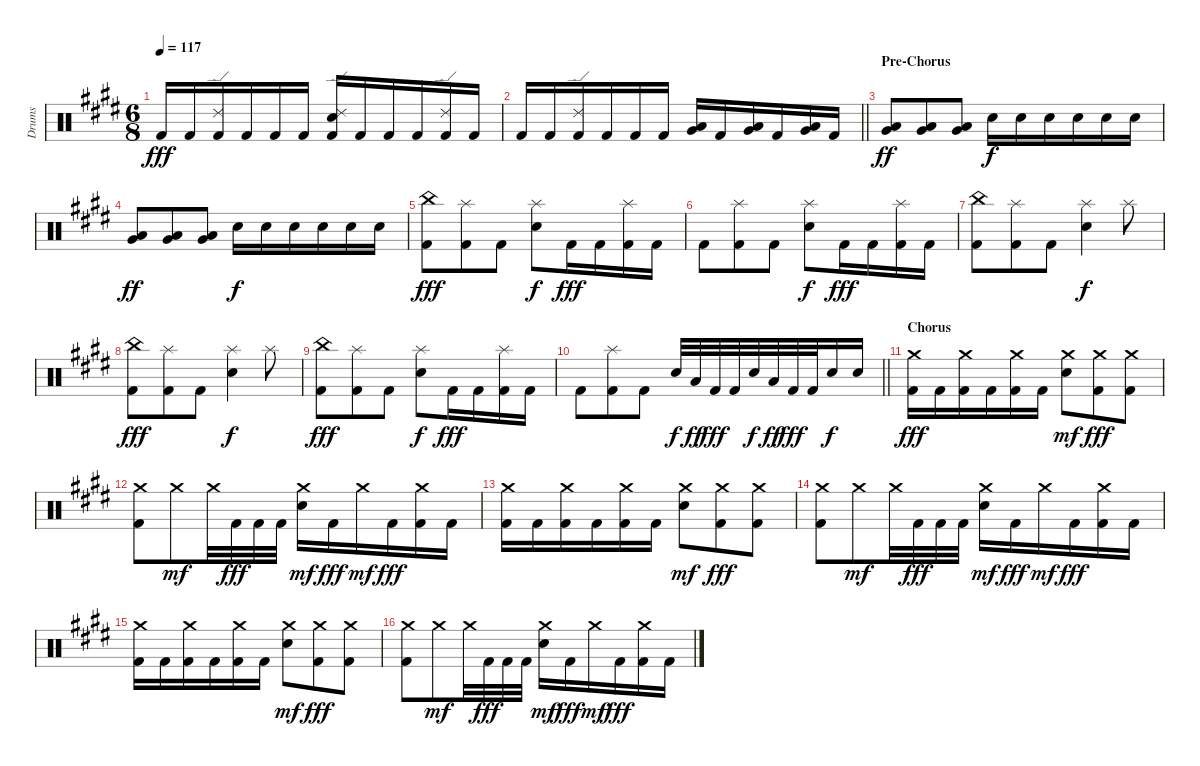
\track ("Drums" "Drums") {instrument percussion}
\staff {score}
\articulation defaults
\ts (6 8)
\tempo 117
\clef neutral
\ks c#minor "Kick (hit) 2".16{dy fff} "Kick (hit) 2".16
("Ride (edge) 2" "Kick (hit) 2").16 "Kick (hit) 2".16 "Kick (hit) 2".16 "Kick (hit) 2".16 ("Ride (edge) 2" "Electric Snare (hit)" "Kick (hit) 2").16 "Kick (hit) 2".16 "Kick (hit) 2".16 "Kick (hit) 2".16 ("Ride (edge) 2" "Kick (hit) 2").16 "Kick (hit) 2".16 |
\barLineRight lightlight "Kick (hit) 2".16 "Kick (hit) 2".16
("Ride (edge) 2" "Kick (hit) 2").16 "Kick (hit) 2".16 "Kick (hit) 2".16 "Kick (hit) 2".16 ("Very Low Tom (hit)" "Low Floor Tom (hit)").16 "Kick (hit) 2".16 ("Very Low Tom (hit)" "Low Floor Tom (hit)").16 "Kick (hit) 2".16 ("Very Low Tom (hit)" "Low Floor Tom (hit)").16 "Kick (hit) 2".16 |
\section ("" "Pre-Chorus")
("Very Low Tom (hit)" "Low Floor Tom (hit)").8{dy ff} ("Very Low Tom (hit)" "Low Floor Tom (hit)").8 ("Very Low Tom (hit)" "Low Floor Tom (hit)").8 "Electric Snare (hit)".16{dy f} "Electric Snare (hit)".16 "Electric Snare (hit)".16 "Electric Snare (hit)".16 "Electric Snare (hit)".16 "Electric Snare (hit)".16 |
("Very Low Tom (hit)" "Low Floor Tom (hit)").8{dy ff} ("Very Low Tom (hit)" "Low Floor Tom (hit)").8 ("Very Low Tom (hit)" "Low Floor Tom (hit)").8 "Electric Snare (hit)".16{dy f} "Electric Snare (hit)".16 "Electric Snare (hit)".16 "Electric Snare (hit)".16 "Electric Snare (hit)".16 "Electric Snare (hit)".16 |
("China (hit)" "Kick (hit) 2").8{dy fff} ("Splash (hit)" "Kick (hit) 2").8 "Kick (hit) 2".8 ("Splash (hit)" "Electric Snare (hit)").8{dy f} "Kick (hit) 2".16{dy fff} "Kick (hit) 2".16 ("Splash (hit)" "Kick (hit) 2").16 "Kick (hit) 2".16 |
"Kick (hit) 2".8 ("Splash (hit)" "Kick (hit) 2").8 "Kick (hit) 2".8 ("Splash (hit)" "Electric Snare (hit)").8{dy f} "Kick (hit) 2".16{dy fff} "Kick (hit) 2".16 ("Splash (hit)" "Kick (hit) 2").16 "Kick (hit) 2".16 |
("China (hit)" "Kick (hit) 2").8 ("Splash (hit)" "Kick (hit) 2").8 "Kick (hit) 2".8 ("Splash (hit)" "Electric Snare (hit)").4{dy f} "Splash (hit)".8 |
("China (hit)" "Kick (hit) 2").8{dy fff} ("Splash (hit)" "Kick (hit) 2").8 "Kick (hit) 2".8 ("Splash (hit)" "Electric Snare (hit)").4{dy f} "Splash (hit)".8 |
("China (hit)" "Kick (hit) 2").8{dy fff} ("Splash (hit)" "Kick (hit) 2").8 "Kick (hit) 2".8 ("Splash (hit)" "Electric Snare (hit)").8{dy f} "Kick (hit) 2".16{dy fff} "Kick (hit) 2".16 ("Splash (hit)" "Kick (hit) 2").16 "Kick (hit) 2".16 |
\barLineRight lightlight "Kick (hit) 2".8
("Splash (hit)" "Kick (hit) 2").8 "Kick (hit) 2".8 "Electric Snare (hit)".32{dy f} "Low Tom (hit)".32{dy ff} "Kick (hit) 2".32{dy fff} "Kick (hit) 2".32 "Electric Snare (hit)".32{dy f} "Low Tom (hit)".32{dy ff} "Kick (hit) 2".32{dy fff} "Kick (hit) 2".32 "Electric Snare (hit)".16{dy f} "Electric Snare (hit)".16 |
\section ("" "Chorus")
("Crash medium (hit)" "Kick (hit) 2").16{dy fff} "Kick (hit) 2".16 ("Crash medium (hit)" "Kick (hit) 2").16 "Kick (hit) 2".16 ("Crash medium (hit)" "Kick (hit) 2").16 "Kick (hit) 2".16 ("Crash medium (hit)" "Electric Snare (hit)").8{dy mf} ("Crash medium (hit)" "Kick (hit) 2").8{dy fff} ("Crash medium (hit)" "Kick (hit) 2").8 |
("Crash medium (hit)" "Kick (hit) 2").8 "Crash medium (hit)".8{dy mf} "Crash medium (hit)".32 "Kick (hit) 2".32{dy fff} "Kick (hit) 2".32 "Kick (hit) 2".32 ("Crash medium (hit)" "Electric Snare (hit)").16{dy mf} "Kick (hit) 2".16{dy fff} "Crash medium (hit)".16{dy mf} "Kick (hit) 2".16{dy fff} ("Crash medium (hit)" "Kick (hit) 2").16 "Kick (hit) 2".16 |
("Crash medium (hit)" "Kick (hit) 2").16 "Kick (hit) 2".16 ("Crash medium (hit)" "Kick (hit) 2").16 "Kick (hit) 2".16 ("Crash medium (hit)" "Kick (hit) 2").16 "Kick (hit) 2".16 ("Crash medium (hit)" "Electric Snare (hit)").8{dy mf} ("Crash medium (hit)" "Kick (hit) 2").8{dy fff} ("Crash medium (hit)" "Kick (hit) 2").8 |
("Crash medium (hit)" "Kick (hit) 2").8 "Crash medium (hit)".8{dy mf} "Crash medium (hit)".32 "Kick (hit) 2".32{dy fff} "Kick (hit) 2".32 "Kick (hit) 2".32 ("Crash medium (hit)" "Electric Snare (hit)").16{dy mf} "Kick (hit) 2".16{dy fff} "Crash medium (hit)".16{dy mf} "Kick (hit) 2".16{dy fff} ("Crash medium (hit)" "Kick (hit) 2").16 "Kick (hit) 2".16 |
("Crash medium (hit)" "Kick (hit) 2").16 "Kick (hit) 2".16 ("Crash medium (hit)" "Kick (hit) 2").16 "Kick (hit) 2".16 ("Crash medium (hit)" "Kick (hit) 2").16 "Kick (hit) 2".16 ("Crash medium (hit)" "Electric Snare (hit)").8{dy mf} ("Crash medium (hit)" "Kick (hit) 2").8{dy fff} ("Crash medium (hit)" "Kick (hit) 2").8 |
("Crash medium (hit)" "Kick (hit) 2").8 "Crash medium (hit)".8{dy mf} "Crash medium (hit)".32 "Kick (hit) 2".32{dy fff} "Kick (hit) 2".32 "Kick (hit) 2".32 ("Crash medium (hit)" "Electric Snare (hit)").16{dy mf} "Kick (hit) 2".16{dy fff} "Crash medium (hit)".16{dy mf} "Kick (hit) 2".16{dy fff} ("Crash medium (hit)" "Kick (hit) 2").16 "Kick (hit) 2".16
